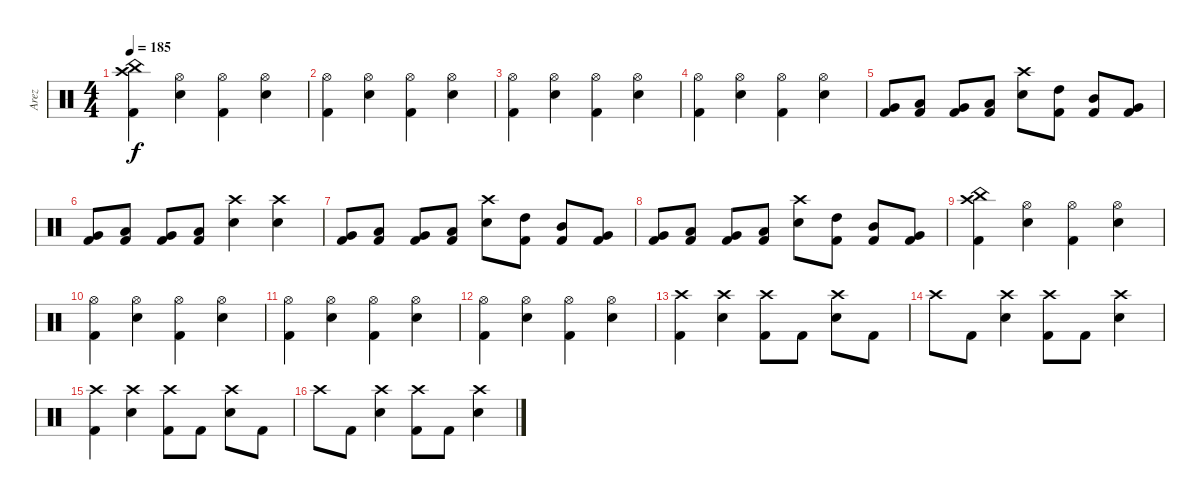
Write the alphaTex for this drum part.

\track ("Arez" "Arez") {instrument percussion}
\staff {score}
\articulation defaults
\ts (4 4)
\tempo 185
\clef neutral
\ks c
("Crash high (hit)" "Kick (hit) 2" "China (hit)").4{dy f} ("Hi-Hat (open)" "Electric Snare (hit)").4 ("Kick (hit) 2" "Hi-Hat (open)").4 ("Hi-Hat (open)" "Electric Snare (hit)").4 |
("Kick (hit) 2" "Hi-Hat (open)").4 ("Hi-Hat (open)" "Electric Snare (hit)").4 ("Kick (hit) 2" "Hi-Hat (open)").4 ("Hi-Hat (open)" "Electric Snare (hit)").4 |
("Kick (hit) 2" "Hi-Hat (open)").4 ("Hi-Hat (open)" "Electric Snare (hit)").4 ("Kick (hit) 2" "Hi-Hat (open)").4 ("Hi-Hat (open)" "Electric Snare (hit)").4 |
("Kick (hit) 2" "Hi-Hat (open)").4 ("Hi-Hat (open)" "Electric Snare (hit)").4 ("Kick (hit) 2" "Hi-Hat (open)").4 ("Hi-Hat (open)" "Electric Snare (hit)").4 |
("Very Low Tom (hit)" "Kick (hit) 2").8 ("Low Floor Tom (hit)" "Kick (hit) 2").8 ("Very Low Tom (hit)" "Kick (hit) 2").8 ("Low Floor Tom (hit)" "Kick (hit) 2").8 ("Electric Snare (hit)" "Crash high (hit)").8 ("High Tom (hit)" "Kick (hit) 2").8 ("Mid Tom (hit)" "Kick (hit) 2").8 ("Very Low Tom (hit)" "Kick (hit) 2").8 |
("Very Low Tom (hit)" "Kick (hit) 2").8 ("Low Floor Tom (hit)" "Kick (hit) 2").8 ("Very Low Tom (hit)" "Kick (hit) 2").8 ("Low Floor Tom (hit)" "Kick (hit) 2").8 ("Electric Snare (hit)" "Crash high (hit)").4 ("Electric Snare (hit)" "Crash high (hit)").4 |
("Very Low Tom (hit)" "Kick (hit) 2").8 ("Low Floor Tom (hit)" "Kick (hit) 2").8 ("Very Low Tom (hit)" "Kick (hit) 2").8 ("Low Floor Tom (hit)" "Kick (hit) 2").8 ("Electric Snare (hit)" "Crash high (hit)").8 ("High Tom (hit)" "Kick (hit) 2").8 ("Mid Tom (hit)" "Kick (hit) 2").8 ("Very Low Tom (hit)" "Kick (hit) 2").8 |
("Very Low Tom (hit)" "Kick (hit) 2").8 ("Low Floor Tom (hit)" "Kick (hit) 2").8 ("Very Low Tom (hit)" "Kick (hit) 2").8 ("Low Floor Tom (hit)" "Kick (hit) 2").8 ("Electric Snare (hit)" "Crash high (hit)").8 ("High Tom (hit)" "Kick (hit) 2").8 ("Mid Tom (hit)" "Kick (hit) 2").8 ("Very Low Tom (hit)" "Kick (hit) 2").8 |
("Crash high (hit)" "Kick (hit) 2" "China (hit)").4 ("Hi-Hat (open)" "Electric Snare (hit)").4 ("Kick (hit) 2" "Hi-Hat (open)").4 ("Hi-Hat (open)" "Electric Snare (hit)").4 |
("Kick (hit) 2" "Hi-Hat (open)").4 ("Hi-Hat (open)" "Electric Snare (hit)").4 ("Kick (hit) 2" "Hi-Hat (open)").4 ("Hi-Hat (open)" "Electric Snare (hit)").4 |
("Kick (hit) 2" "Hi-Hat (open)").4 ("Hi-Hat (open)" "Electric Snare (hit)").4 ("Kick (hit) 2" "Hi-Hat (open)").4 ("Hi-Hat (open)" "Electric Snare (hit)").4 |
("Kick (hit) 2" "Hi-Hat (open)").4 ("Hi-Hat (open)" "Electric Snare (hit)").4 ("Kick (hit) 2" "Hi-Hat (open)").4 ("Hi-Hat (open)" "Electric Snare (hit)").4 |
("Crash high (hit)" "Kick (hit) 2").4 ("Crash high (hit)" "Electric Snare (hit)").4 ("Crash high (hit)" "Kick (hit) 2").8 "Kick (hit) 2".8 ("Crash high (hit)" "Electric Snare (hit)").8 "Kick (hit) 2".8 |
"Crash high (hit)".8 "Kick (hit) 2".8 ("Electric Snare (hit)" "Crash high (hit)").4 ("Kick (hit) 2" "Crash high (hit)").8 "Kick (hit) 2".8 ("Electric Snare (hit)" "Crash high (hit)").4 |
("Crash high (hit)" "Kick (hit) 2").4 ("Crash high (hit)" "Electric Snare (hit)").4 ("Crash high (hit)" "Kick (hit) 2").8 "Kick (hit) 2".8 ("Crash high (hit)" "Electric Snare (hit)").8 "Kick (hit) 2".8 |
"Crash high (hit)".8 "Kick (hit) 2".8 ("Electric Snare (hit)" "Crash high (hit)").4 ("Kick (hit) 2" "Crash high (hit)").8 "Kick (hit) 2".8 ("Electric Snare (hit)" "Crash high (hit)").4
